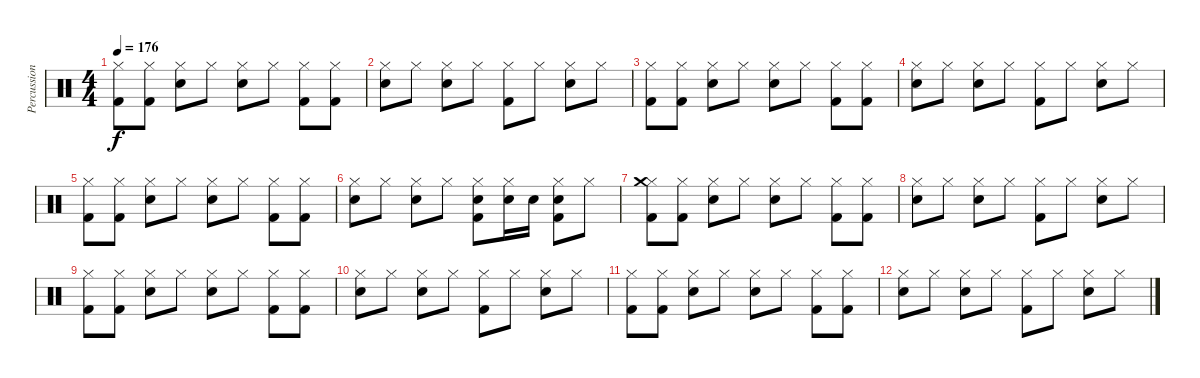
\track ("Percussion" "Percussion") {instrument percussion}
\staff {score}
\articulation defaults
\ts (4 4)
\tempo 176
\clef neutral
\ks c
("Hi-Hat (closed)" "Kick (hit) 2").8{dy f} ("Hi-Hat (closed)" "Kick (hit) 2").8 ("Hi-Hat (closed)" "Snare (hit) 2").8 "Hi-Hat (closed)".8 ("Hi-Hat (closed)" "Snare (hit) 2").8 "Hi-Hat (closed)".8 ("Hi-Hat (closed)" "Kick (hit) 2").8 ("Hi-Hat (closed)" "Kick (hit) 2").8 |
("Hi-Hat (closed)" "Snare (hit) 2").8 "Hi-Hat (closed)".8 ("Hi-Hat (closed)" "Snare (hit) 2").8 "Hi-Hat (closed)".8 ("Hi-Hat (closed)" "Kick (hit) 2").8 "Hi-Hat (closed)".8 ("Hi-Hat (closed)" "Snare (hit) 2").8 "Hi-Hat (closed)".8 |
("Hi-Hat (closed)" "Kick (hit) 2").8 ("Hi-Hat (closed)" "Kick (hit) 2").8 ("Hi-Hat (closed)" "Snare (hit) 2").8 "Hi-Hat (closed)".8 ("Hi-Hat (closed)" "Snare (hit) 2").8 "Hi-Hat (closed)".8 ("Hi-Hat (closed)" "Kick (hit) 2").8 ("Hi-Hat (closed)" "Kick (hit) 2").8 |
("Hi-Hat (closed)" "Snare (hit) 2").8 "Hi-Hat (closed)".8 ("Hi-Hat (closed)" "Snare (hit) 2").8 "Hi-Hat (closed)".8 ("Hi-Hat (closed)" "Kick (hit) 2").8 "Hi-Hat (closed)".8 ("Hi-Hat (closed)" "Snare (hit) 2").8 "Hi-Hat (closed)".8 |
("Hi-Hat (closed)" "Kick (hit) 2").8 ("Hi-Hat (closed)" "Kick (hit) 2").8 ("Hi-Hat (closed)" "Snare (hit) 2").8 "Hi-Hat (closed)".8 ("Hi-Hat (closed)" "Snare (hit) 2").8 "Hi-Hat (closed)".8 ("Hi-Hat (closed)" "Kick (hit) 2").8 ("Hi-Hat (closed)" "Kick (hit) 2").8 |
("Hi-Hat (closed)" "Snare (hit) 2").8 "Hi-Hat (closed)".8 ("Hi-Hat (closed)" "Snare (hit) 2").8 "Hi-Hat (closed)".8 ("Hi-Hat (closed)" "Snare (hit) 2" "Kick (hit) 2").8 ("Hi-Hat (closed)" "Snare (hit) 2").16 "Snare (hit) 2".16 ("Hi-Hat (closed)" "Snare (hit) 2" "Kick (hit) 2").8 "Hi-Hat (closed)".8 |
("Hi-Hat (closed)" "Crash medium (hit)" "Kick (hit) 2").8 ("Hi-Hat (closed)" "Kick (hit) 2").8 ("Hi-Hat (closed)" "Snare (hit) 2").8 "Hi-Hat (closed)".8 ("Hi-Hat (closed)" "Snare (hit) 2").8 "Hi-Hat (closed)".8 ("Hi-Hat (closed)" "Kick (hit) 2").8 ("Hi-Hat (closed)" "Kick (hit) 2").8 |
("Hi-Hat (closed)" "Snare (hit) 2").8 "Hi-Hat (closed)".8 ("Hi-Hat (closed)" "Snare (hit) 2").8 "Hi-Hat (closed)".8 ("Hi-Hat (closed)" "Kick (hit) 2").8 "Hi-Hat (closed)".8 ("Hi-Hat (closed)" "Snare (hit) 2").8 "Hi-Hat (closed)".8 |
("Hi-Hat (closed)" "Kick (hit) 2").8 ("Hi-Hat (closed)" "Kick (hit) 2").8 ("Hi-Hat (closed)" "Snare (hit) 2").8 "Hi-Hat (closed)".8 ("Hi-Hat (closed)" "Snare (hit) 2").8 "Hi-Hat (closed)".8 ("Hi-Hat (closed)" "Kick (hit) 2").8 ("Hi-Hat (closed)" "Kick (hit) 2").8 |
("Hi-Hat (closed)" "Snare (hit) 2").8 "Hi-Hat (closed)".8 ("Hi-Hat (closed)" "Snare (hit) 2").8 "Hi-Hat (closed)".8 ("Hi-Hat (closed)" "Kick (hit) 2").8 "Hi-Hat (closed)".8 ("Hi-Hat (closed)" "Snare (hit) 2").8 "Hi-Hat (closed)".8 |
("Hi-Hat (closed)" "Kick (hit) 2").8 ("Hi-Hat (closed)" "Kick (hit) 2").8 ("Hi-Hat (closed)" "Snare (hit) 2").8 "Hi-Hat (closed)".8 ("Hi-Hat (closed)" "Snare (hit) 2").8 "Hi-Hat (closed)".8 ("Hi-Hat (closed)" "Kick (hit) 2").8 ("Hi-Hat (closed)" "Kick (hit) 2").8 |
("Hi-Hat (closed)" "Snare (hit) 2").8 "Hi-Hat (closed)".8 ("Hi-Hat (closed)" "Snare (hit) 2").8 "Hi-Hat (closed)".8 ("Hi-Hat (closed)" "Kick (hit) 2").8 "Hi-Hat (closed)".8 ("Hi-Hat (closed)" "Snare (hit) 2").8 "Hi-Hat (closed)".8
